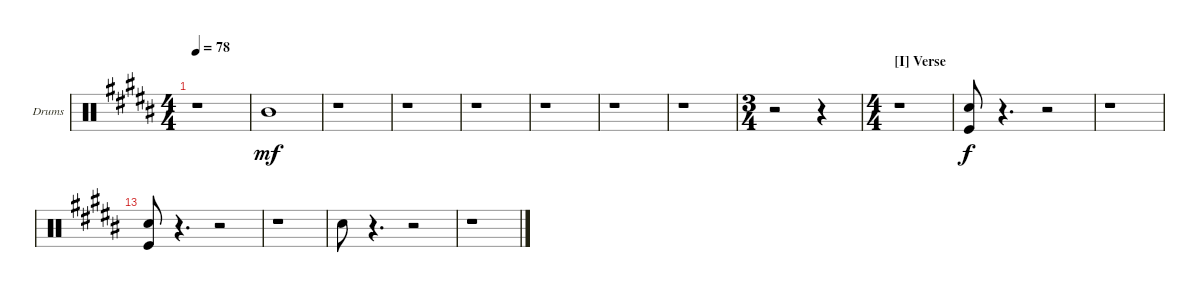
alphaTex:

\bracketExtendMode nobrackets
\firstSystemTrackNameOrientation horizontal
\otherSystemsTrackNameOrientation horizontal
\defaultBarNumberDisplay FirstOfSystem
\track ("Drumkit" "Drums") {instrument percussion}
\staff {score}
\articulation defaults
\ts (4 4)
\tempo 78
\clef neutral
\ks b
r.1{dy f} |
"Mid Tom (hit)".1{dy mf} |
r.1 |
r.1 |
r.1 |
r.1 |
r.1 |
r.1 |
\ts (3 4)
\beaming (8 2 2 2)
r.2 r.4 |
\ts (4 4)
\beaming (8 2 2 2 2)
\section ("I" "Verse")
r.1 |
("Snare (hit) 2" "Kick (hit)").8{dy f} r.4{d} r.2 |
r.1 |
("Snare (hit) 2" "Kick (hit)").8 r.4{d} r.2 |
\scale
0.26447 r.1 |
\scale
0.232623 "Snare (hit) 2".8 r.4{d} r.2 |
\scale
0.213237 r.1
